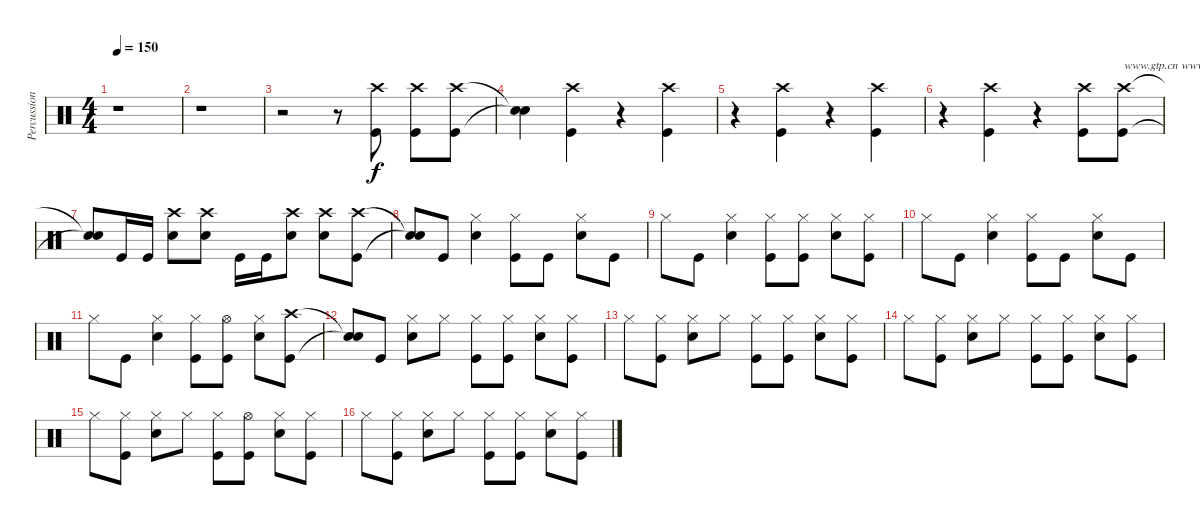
\track ("Percussion" "Percussion") {instrument percussion}
\staff {score}
\articulation defaults
\ts (4 4)
\tempo 150
\clef neutral
\ks c
r.1{dy f} |
r.1 |
r.2 r.8 ("Crash high (hit)" "Kick (hit)").8 ("Crash high (hit)" "Kick (hit)").8 ("Crash high (hit)" "Kick (hit)").8 |
("Snare (hit)"{t} "Snare (hit)"{t}).4 ("Crash high (hit)" "Kick (hit)").4 r.4 ("Crash high (hit)" "Kick (hit)").4 |
r.4 ("Crash high (hit)" "Kick (hit)").4 r.4 ("Crash high (hit)" "Kick (hit)").4 |
r.4 ("Crash high (hit)" "Kick (hit)").4 r.4 ("Crash high (hit)" "Kick (hit)").8 ("Crash high (hit)" "Kick (hit)").8{txt "www.gtp.cn www.51gtp.com联合为您提供优秀的GTP!"} |
("Snare (hit)"{t} "Snare (hit)"{t}).8 "Kick (hit)".16 "Kick (hit)".16 ("Crash high (hit)" "Electric Snare (hit)").8 ("Crash high (hit)" "Electric Snare (hit)").8 "Kick (hit)".16 "Kick (hit)".16 ("Crash high (hit)" "Electric Snare (hit)").8 ("Crash high (hit)" "Electric Snare (hit)").8 ("Crash high (hit)" "Kick (hit)").8 |
("Snare (hit)"{t} "Snare (hit)"{t}).8 "Kick (hit)".8 ("Hi-Hat (closed)" "Electric Snare (hit)").4 ("Hi-Hat (closed)" "Kick (hit)").8 "Kick (hit)".8 ("Hi-Hat (closed)" "Electric Snare (hit)").8 "Kick (hit)".8 |
"Hi-Hat (closed)".8 "Kick (hit)".8 ("Hi-Hat (closed)" "Electric Snare (hit)").4 ("Hi-Hat (closed)" "Kick (hit)").8 ("Hi-Hat (closed)" "Kick (hit)").8 ("Hi-Hat (closed)" "Electric Snare (hit)").8 ("Hi-Hat (closed)" "Kick (hit)").8 |
"Hi-Hat (closed)".8 "Kick (hit)".8 ("Hi-Hat (closed)" "Electric Snare (hit)").4 ("Hi-Hat (closed)" "Kick (hit)").8 "Kick (hit)".8 ("Hi-Hat (closed)" "Electric Snare (hit)").8 "Kick (hit)".8 |
"Hi-Hat (closed)".8 "Kick (hit)".8 ("Hi-Hat (closed)" "Electric Snare (hit)").4 ("Hi-Hat (closed)" "Kick (hit)").8 ("Hi-Hat (open)" "Kick (hit)").8 ("Hi-Hat (closed)" "Electric Snare (hit)").8 ("Crash high (hit)" "Kick (hit)").8 |
("Snare (hit)"{t} "Snare (hit)"{t}).8 "Kick (hit)".8 ("Hi-Hat (closed)" "Electric Snare (hit)").8 "Hi-Hat (closed)".8 ("Hi-Hat (closed)" "Kick (hit)").8 ("Hi-Hat (closed)" "Kick (hit)").8 ("Hi-Hat (closed)" "Electric Snare (hit)").8 ("Hi-Hat (closed)" "Kick (hit)").8 |
"Hi-Hat (closed)".8 ("Hi-Hat (closed)" "Kick (hit)").8 ("Hi-Hat (closed)" "Electric Snare (hit)").8 "Hi-Hat (closed)".8 ("Hi-Hat (closed)" "Kick (hit)").8 ("Hi-Hat (closed)" "Kick (hit)").8 ("Hi-Hat (closed)" "Electric Snare (hit)").8 ("Hi-Hat (closed)" "Kick (hit)").8 |
"Hi-Hat (closed)".8 ("Hi-Hat (closed)" "Kick (hit)").8 ("Hi-Hat (closed)" "Electric Snare (hit)").8 "Hi-Hat (closed)".8 ("Hi-Hat (closed)" "Kick (hit)").8 ("Hi-Hat (closed)" "Kick (hit)").8 ("Hi-Hat (closed)" "Electric Snare (hit)").8 ("Hi-Hat (closed)" "Kick (hit)").8 |
"Hi-Hat (closed)".8 ("Hi-Hat (closed)" "Kick (hit)").8 ("Hi-Hat (closed)" "Electric Snare (hit)").8 "Hi-Hat (closed)".8 ("Hi-Hat (closed)" "Kick (hit)").8 ("Hi-Hat (open)" "Kick (hit)").8 ("Hi-Hat (closed)" "Electric Snare (hit)").8 ("Hi-Hat (closed)" "Kick (hit)").8 |
"Hi-Hat (closed)".8 ("Hi-Hat (closed)" "Kick (hit)").8 ("Hi-Hat (closed)" "Electric Snare (hit)").8 "Hi-Hat (closed)".8 ("Hi-Hat (closed)" "Kick (hit)").8 ("Hi-Hat (closed)" "Kick (hit)").8 ("Hi-Hat (closed)" "Electric Snare (hit)").8 ("Hi-Hat (closed)" "Kick (hit)").8
